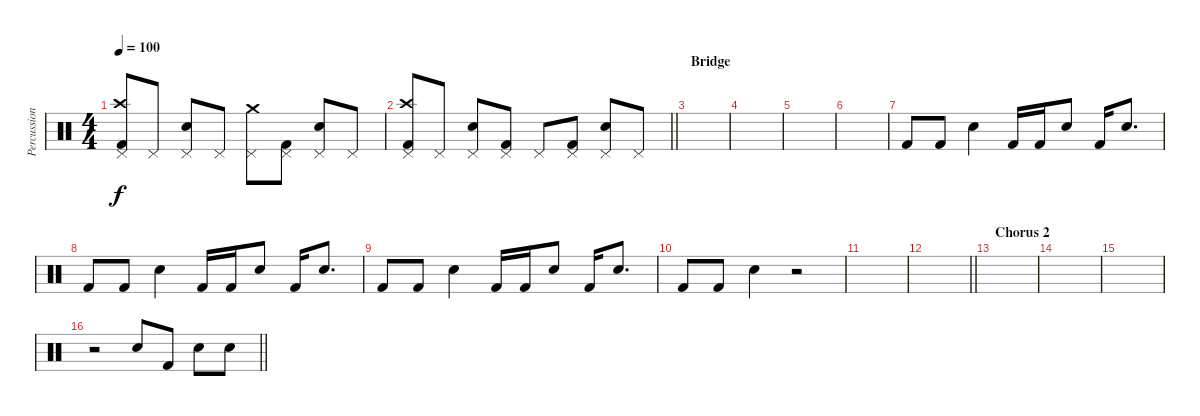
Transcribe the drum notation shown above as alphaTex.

\track ("Percussion" "Percussion") {instrument percussion}
\staff {score}
\articulation defaults
\ts (4 4)
\tempo 100
\clef neutral
\ks c
("Pedal Hi-Hat (hit)" "Crash high (hit)" "Kick (hit) 2").8{dy f} "Pedal Hi-Hat (hit)".8 ("Pedal Hi-Hat (hit)" "Electric Snare (hit)").8 "Pedal Hi-Hat (hit)".8 ("Pedal Hi-Hat (hit)" "Crash medium (hit)").8 ("Pedal Hi-Hat (hit)" "Kick (hit) 2").8 ("Pedal Hi-Hat (hit)" "Electric Snare (hit)").8 "Pedal Hi-Hat (hit)".8 |
\barLineRight lightlight
("Pedal Hi-Hat (hit)" "Crash high (hit)" "Kick (hit) 2").8 "Pedal Hi-Hat (hit)".8 ("Pedal Hi-Hat (hit)" "Electric Snare (hit)").8 ("Pedal Hi-Hat (hit)" "Kick (hit) 2").8 "Pedal Hi-Hat (hit)".8 ("Pedal Hi-Hat (hit)" "Kick (hit) 2").8 ("Pedal Hi-Hat (hit)" "Electric Snare (hit)").8 "Pedal Hi-Hat (hit)".8 |
\section ("" "Bridge")
|
|
|
|
"Kick (hit) 2".8 "Kick (hit) 2".8 "Hand Clap (hit)".4 "Kick (hit) 2".16 "Kick (hit) 2".16 "Hand Clap (hit)".8 "Kick (hit) 2".16 "Hand Clap (hit)".8{d} |
"Kick (hit) 2".8 "Kick (hit) 2".8 "Hand Clap (hit)".4 "Kick (hit) 2".16 "Kick (hit) 2".16 "Hand Clap (hit)".8 "Kick (hit) 2".16 "Hand Clap (hit)".8{d} |
"Kick (hit) 2".8 "Kick (hit) 2".8 "Hand Clap (hit)".4 "Kick (hit) 2".16 "Kick (hit) 2".16 "Hand Clap (hit)".8 "Kick (hit) 2".16 "Hand Clap (hit)".8{d} |
"Kick (hit) 2".8 "Kick (hit) 2".8 "Hand Clap (hit)".4 r.2 |
|
\barLineRight lightlight
|
\section ("" "Chorus 2")
|
|
|
\barLineRight lightlight
r.2 "Electric Snare (hit)".8 "Kick (hit) 2".8 "Electric Snare (hit)".8 "Electric Snare (hit)".8
